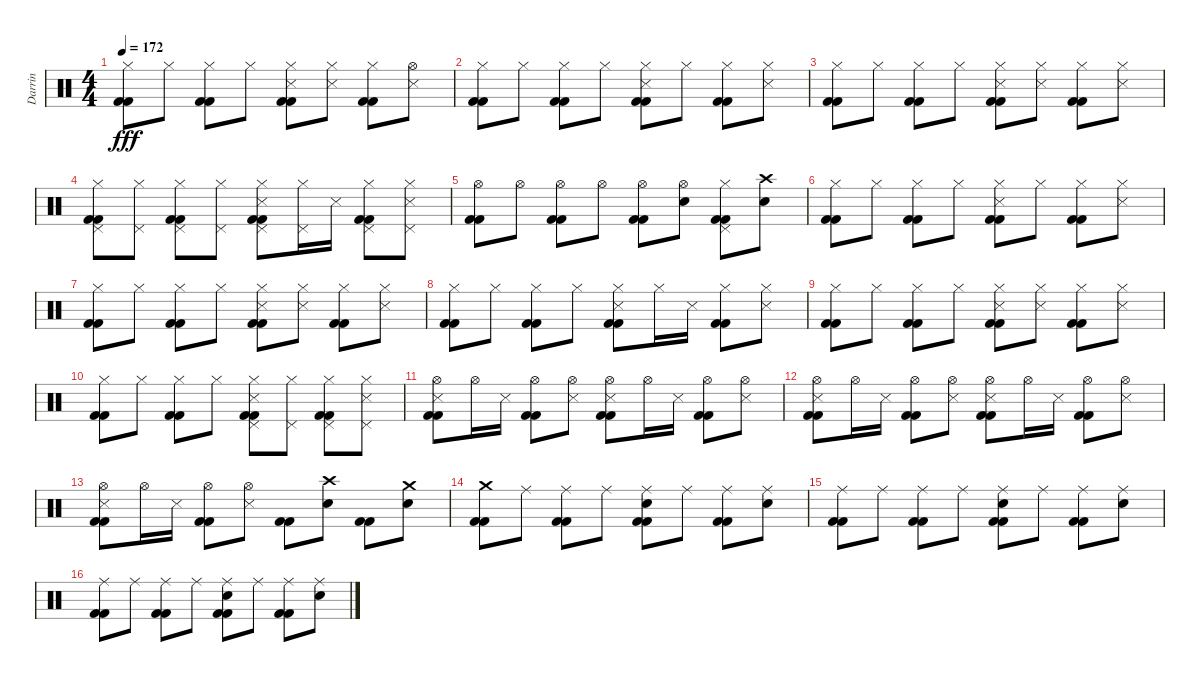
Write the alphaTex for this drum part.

\track ("Darrin" "Darrin") {instrument percussion}
\staff {score}
\articulation defaults
\ts (4 4)
\tempo 172
\clef neutral
\ks c
("Hi-Hat (closed)" "Kick (hit) 2" "Kick (hit) 2").8{dy fff} "Hi-Hat (closed)".8 ("Hi-Hat (closed)" "Kick (hit) 2" "Kick (hit) 2").8 "Hi-Hat (closed)".8 ("Hi-Hat (closed)" "Snare (side stick) 3" "Kick (hit) 2" "Kick (hit) 2").8 ("Hi-Hat (closed)" "Snare (side stick) 3").8 ("Hi-Hat (closed)" "Kick (hit) 2" "Kick (hit) 2").8 ("Hi-Hat (open)" "Snare (side stick) 3").8 |
("Hi-Hat (closed)" "Kick (hit) 2" "Kick (hit) 2").8 "Hi-Hat (closed)".8 ("Hi-Hat (closed)" "Kick (hit) 2" "Kick (hit) 2").8 "Hi-Hat (closed)".8 ("Hi-Hat (closed)" "Snare (side stick) 3" "Kick (hit) 2" "Kick (hit) 2").8 "Hi-Hat (closed)".8 ("Hi-Hat (closed)" "Kick (hit) 2" "Kick (hit) 2").8 ("Hi-Hat (closed)" "Snare (side stick) 3").8 |
("Hi-Hat (closed)" "Kick (hit) 2" "Kick (hit) 2").8 "Hi-Hat (closed)".8 ("Hi-Hat (closed)" "Kick (hit) 2" "Kick (hit) 2").8 "Hi-Hat (closed)".8 ("Hi-Hat (closed)" "Snare (side stick) 3" "Kick (hit) 2" "Kick (hit) 2").8 ("Hi-Hat (closed)" "Snare (side stick) 3").8 ("Hi-Hat (closed)" "Kick (hit) 2" "Kick (hit) 2").8 ("Hi-Hat (closed)" "Snare (side stick) 3").8 |
("Hi-Hat (closed)" "Pedal Hi-Hat (hit)" "Kick (hit) 2" "Kick (hit) 2").8 ("Hi-Hat (closed)" "Pedal Hi-Hat (hit)").8 ("Hi-Hat (closed)" "Pedal Hi-Hat (hit)" "Kick (hit) 2" "Kick (hit) 2").8 ("Hi-Hat (closed)" "Pedal Hi-Hat (hit)").8 ("Hi-Hat (closed)" "Pedal Hi-Hat (hit)" "Snare (side stick) 3" "Kick (hit) 2" "Kick (hit) 2").8 ("Hi-Hat (closed)" "Pedal Hi-Hat (hit)").16 "Snare (side stick) 3".16 ("Hi-Hat (closed)" "Pedal Hi-Hat (hit)" "Kick (hit) 2" "Kick (hit) 2").8 ("Hi-Hat (closed)" "Pedal Hi-Hat (hit)" "Snare (side stick) 3").8 |
("Hi-Hat (open)" "Kick (hit) 2" "Kick (hit) 2").8 "Hi-Hat (open)".8 ("Hi-Hat (open)" "Kick (hit) 2" "Kick (hit) 2").8 "Hi-Hat (open)".8 ("Hi-Hat (open)" "Kick (hit) 2" "Kick (hit) 2").8 ("Hi-Hat (open)" "Snare (hit) 2").8 ("Hi-Hat (closed)" "Pedal Hi-Hat (hit)" "Kick (hit) 2" "Kick (hit) 2").8 ("Crash high (hit)" "Snare (hit) 2").8 |
("Hi-Hat (closed)" "Kick (hit) 2" "Kick (hit) 2").8 "Hi-Hat (closed)".8 ("Hi-Hat (closed)" "Kick (hit) 2" "Kick (hit) 2").8 "Hi-Hat (closed)".8 ("Hi-Hat (closed)" "Snare (side stick) 3" "Kick (hit) 2" "Kick (hit) 2").8 "Hi-Hat (closed)".8 ("Hi-Hat (closed)" "Kick (hit) 2" "Kick (hit) 2").8 ("Hi-Hat (closed)" "Snare (side stick) 3").8 |
("Hi-Hat (closed)" "Kick (hit) 2" "Kick (hit) 2").8 "Hi-Hat (closed)".8 ("Hi-Hat (closed)" "Kick (hit) 2" "Kick (hit) 2").8 "Hi-Hat (closed)".8 ("Hi-Hat (closed)" "Snare (side stick) 3" "Kick (hit) 2" "Kick (hit) 2").8 ("Hi-Hat (closed)" "Snare (side stick) 3").8 ("Hi-Hat (closed)" "Kick (hit) 2" "Kick (hit) 2").8 ("Hi-Hat (closed)" "Snare (side stick) 3").8 |
("Hi-Hat (closed)" "Kick (hit) 2" "Kick (hit) 2").8 "Hi-Hat (closed)".8 ("Hi-Hat (closed)" "Kick (hit) 2" "Kick (hit) 2").8 "Hi-Hat (closed)".8 ("Hi-Hat (closed)" "Snare (side stick) 3" "Kick (hit) 2" "Kick (hit) 2").8 "Hi-Hat (closed)".16 "Snare (side stick) 3".16 ("Hi-Hat (closed)" "Kick (hit) 2" "Kick (hit) 2").8 ("Hi-Hat (closed)" "Snare (side stick) 3").8 |
("Hi-Hat (closed)" "Kick (hit) 2" "Kick (hit) 2").8 "Hi-Hat (closed)".8 ("Hi-Hat (closed)" "Kick (hit) 2" "Kick (hit) 2").8 "Hi-Hat (closed)".8 ("Hi-Hat (closed)" "Snare (side stick) 3" "Kick (hit) 2" "Kick (hit) 2").8 ("Hi-Hat (closed)" "Snare (side stick) 3").8 ("Hi-Hat (closed)" "Kick (hit) 2" "Kick (hit) 2").8 ("Hi-Hat (closed)" "Snare (side stick) 3").8 |
("Hi-Hat (closed)" "Kick (hit) 2" "Kick (hit) 2").8 "Hi-Hat (closed)".8 ("Hi-Hat (closed)" "Kick (hit) 2" "Kick (hit) 2").8 "Hi-Hat (closed)".8 ("Hi-Hat (closed)" "Pedal Hi-Hat (hit)" "Snare (side stick) 3" "Kick (hit) 2" "Kick (hit) 2").8 ("Hi-Hat (closed)" "Pedal Hi-Hat (hit)").8 ("Hi-Hat (closed)" "Pedal Hi-Hat (hit)" "Kick (hit) 2" "Kick (hit) 2").8 ("Hi-Hat (closed)" "Pedal Hi-Hat (hit)" "Snare (side stick) 3").8 |
("Hi-Hat (open)" "Snare (side stick) 3" "Kick (hit) 2" "Kick (hit) 2").8 "Hi-Hat (open)".16 "Snare (side stick) 3".16 ("Hi-Hat (open)" "Kick (hit) 2" "Kick (hit) 2").8 ("Hi-Hat (open)" "Snare (side stick) 3").8 ("Hi-Hat (open)" "Snare (side stick) 3" "Kick (hit) 2" "Kick (hit) 2").8 "Hi-Hat (open)".16 "Snare (side stick) 3".16 ("Hi-Hat (open)" "Kick (hit) 2" "Kick (hit) 2").8 ("Hi-Hat (open)" "Snare (side stick) 3").8 |
("Hi-Hat (open)" "Snare (side stick) 3" "Kick (hit) 2" "Kick (hit) 2").8 "Hi-Hat (open)".16 "Snare (side stick) 3".16 ("Hi-Hat (open)" "Kick (hit) 2" "Kick (hit) 2").8 ("Hi-Hat (open)" "Snare (side stick) 3").8 ("Hi-Hat (open)" "Snare (side stick) 3" "Kick (hit) 2" "Kick (hit) 2").8 "Hi-Hat (open)".16 "Snare (side stick) 3".16 ("Hi-Hat (open)" "Kick (hit) 2" "Kick (hit) 2").8 ("Hi-Hat (open)" "Snare (side stick) 3").8 |
("Hi-Hat (open)" "Snare (side stick) 3" "Kick (hit) 2" "Kick (hit) 2").8 "Hi-Hat (open)".16 "Snare (side stick) 3".16 ("Hi-Hat (open)" "Kick (hit) 2" "Kick (hit) 2").8 ("Hi-Hat (open)" "Snare (side stick) 3").8 ("Kick (hit) 2" "Kick (hit) 2").8 ("Crash high (hit)" "Snare (hit) 2").8 ("Kick (hit) 2" "Kick (hit) 2").8 ("Crash medium (hit)" "Snare (hit) 2").8 |
("Crash medium (hit)" "Kick (hit) 2" "Kick (hit) 2").8 "Ride (middle)".8 ("Ride (middle)" "Kick (hit) 2" "Kick (hit) 2").8 "Ride (middle)".8 ("Ride (middle)" "Snare (hit) 2" "Kick (hit) 2" "Kick (hit) 2").8 "Ride (middle)".8 ("Ride (middle)" "Kick (hit) 2" "Kick (hit) 2").8 ("Ride (middle)" "Snare (hit) 2").8 |
("Ride (middle)" "Kick (hit) 2" "Kick (hit) 2").8 "Ride (middle)".8 ("Ride (middle)" "Kick (hit) 2" "Kick (hit) 2").8 "Ride (middle)".8 ("Ride (middle)" "Snare (hit) 2" "Kick (hit) 2" "Kick (hit) 2").8 "Ride (middle)".8 ("Ride (middle)" "Kick (hit) 2" "Kick (hit) 2").8 ("Ride (middle)" "Snare (hit) 2").8 |
("Ride (middle)" "Kick (hit) 2" "Kick (hit) 2").8 "Ride (middle)".8 ("Ride (middle)" "Kick (hit) 2" "Kick (hit) 2").8 "Ride (middle)".8 ("Ride (middle)" "Snare (hit) 2" "Kick (hit) 2" "Kick (hit) 2").8 "Ride (middle)".8 ("Ride (middle)" "Kick (hit) 2" "Kick (hit) 2").8 ("Ride (middle)" "Snare (hit) 2").8
